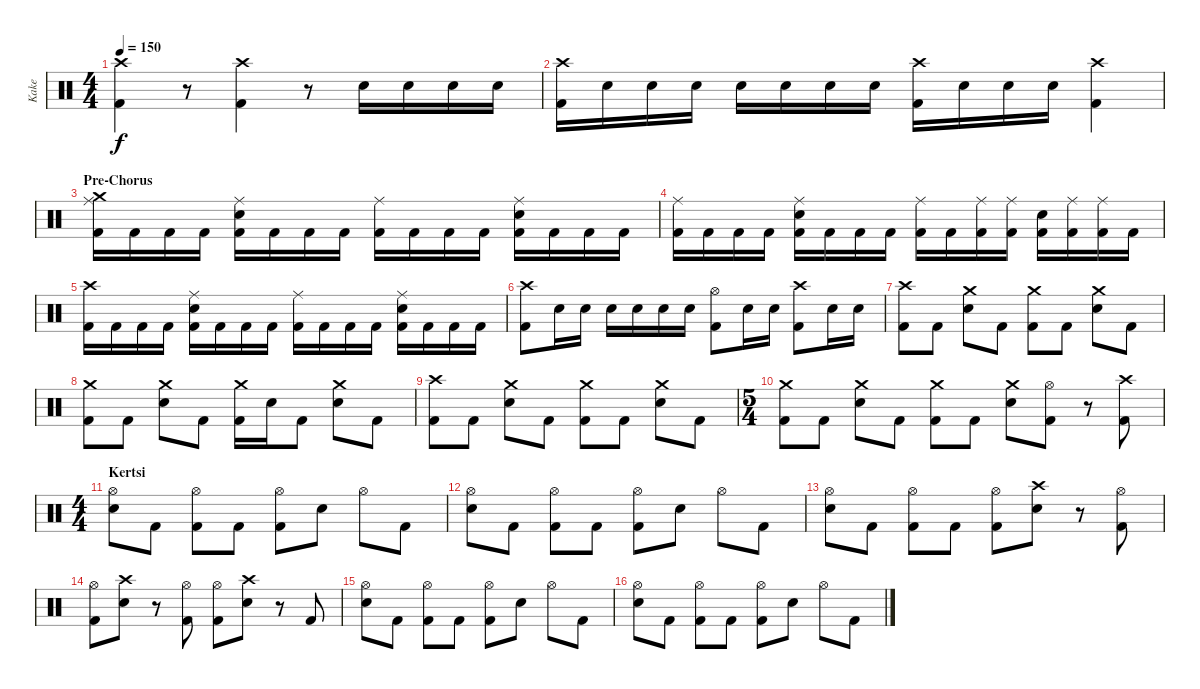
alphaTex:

\track ("Kake" "Kake") {instrument percussion}
\staff {score}
\articulation defaults
\ts (4 4)
\tempo 150
\clef neutral
\ks c
("Crash high (hit)" "Kick (hit) 2").4{dy f} r.8 ("Crash high (hit)" "Kick (hit) 2").4 r.8 "Electric Snare (hit)".16 "Electric Snare (hit)".16 "Electric Snare (hit)".16 "Electric Snare (hit)".16 |
("Crash high (hit)" "Kick (hit) 2").16 "Electric Snare (hit)".16 "Electric Snare (hit)".16 "Electric Snare (hit)".16 "Electric Snare (hit)".16 "Electric Snare (hit)".16 "Electric Snare (hit)".16 "Electric Snare (hit)".16 ("Crash high (hit)" "Kick (hit) 2").16 "Electric Snare (hit)".16 "Electric Snare (hit)".16 "Electric Snare (hit)".16 ("Crash high (hit)" "Kick (hit) 2").4 |
\section ("" "Pre-Chorus")
("Ride (middle)" "Crash medium (hit)" "Kick (hit) 2").16 "Kick (hit) 2".16 "Kick (hit) 2".16 "Kick (hit) 2".16 ("Ride (middle)" "Electric Snare (hit)" "Kick (hit) 2").16 "Kick (hit) 2".16 "Kick (hit) 2".16 "Kick (hit) 2".16 ("Ride (middle)" "Kick (hit) 2").16 "Kick (hit) 2".16 "Kick (hit) 2".16 "Kick (hit) 2".16 ("Ride (middle)" "Electric Snare (hit)" "Kick (hit) 2").16 "Kick (hit) 2".16 "Kick (hit) 2".16 "Kick (hit) 2".16 |
("Ride (middle)" "Kick (hit) 2").16 "Kick (hit) 2".16 "Kick (hit) 2".16 "Kick (hit) 2".16 ("Ride (middle)" "Electric Snare (hit)" "Kick (hit) 2").16 "Kick (hit) 2".16 "Kick (hit) 2".16 "Kick (hit) 2".16 ("Ride (middle)" "Kick (hit) 2").16 "Kick (hit) 2".16 ("Ride (middle)" "Kick (hit) 2").16 ("Ride (middle)" "Kick (hit) 2").16 ("Electric Snare (hit)" "Kick (hit) 2").16 ("Ride (middle)" "Kick (hit) 2").16 ("Ride (middle)" "Kick (hit) 2").16 "Kick (hit) 2".16 |
("Crash high (hit)" "Kick (hit) 2").16 "Kick (hit) 2".16 "Kick (hit) 2".16 "Kick (hit) 2".16 ("Ride (middle)" "Electric Snare (hit)" "Kick (hit) 2").16 "Kick (hit) 2".16 "Kick (hit) 2".16 "Kick (hit) 2".16 ("Ride (middle)" "Kick (hit) 2").16 "Kick (hit) 2".16 "Kick (hit) 2".16 "Kick (hit) 2".16 ("Ride (middle)" "Electric Snare (hit)" "Kick (hit) 2").16 "Kick (hit) 2".16 "Kick (hit) 2".16 "Kick (hit) 2".16 |
("Crash high (hit)" "Kick (hit) 2").8 "Electric Snare (hit)".16 "Electric Snare (hit)".16 "Electric Snare (hit)".16 "Electric Snare (hit)".16 "Electric Snare (hit)".16 "Electric Snare (hit)".16 ("Hi-Hat (open)" "Kick (hit) 2").8 "Electric Snare (hit)".16 "Electric Snare (hit)".16 ("Crash high (hit)" "Kick (hit) 2").8 "Electric Snare (hit)".16 "Electric Snare (hit)".16 |
("Crash high (hit)" "Kick (hit) 2").8 "Kick (hit) 2".8 ("Crash medium (hit)" "Electric Snare (hit)").8 "Kick (hit) 2".8 ("Crash medium (hit)" "Kick (hit) 2").8 "Kick (hit) 2".8 ("Crash medium (hit)" "Electric Snare (hit)").8 "Kick (hit) 2".8 |
("Crash medium (hit)" "Kick (hit) 2").8 "Kick (hit) 2".8 ("Crash medium (hit)" "Electric Snare (hit)").8 "Kick (hit) 2".8 ("Crash medium (hit)" "Kick (hit) 2").16 "Electric Snare (hit)".16 "Kick (hit) 2".8 ("Crash medium (hit)" "Electric Snare (hit)").8 "Kick (hit) 2".8 |
("Crash high (hit)" "Kick (hit) 2").8 "Kick (hit) 2".8 ("Crash medium (hit)" "Electric Snare (hit)").8 "Kick (hit) 2".8 ("Crash medium (hit)" "Kick (hit) 2").8 "Kick (hit) 2".8 ("Crash medium (hit)" "Electric Snare (hit)").8 "Kick (hit) 2".8 |
\ts (5 4)
("Crash medium (hit)" "Kick (hit) 2").8 "Kick (hit) 2".8 ("Crash medium (hit)" "Electric Snare (hit)").8 "Kick (hit) 2".8 ("Crash medium (hit)" "Kick (hit) 2").8 "Kick (hit) 2".8 ("Crash medium (hit)" "Electric Snare (hit)").8 ("Hi-Hat (open)" "Kick (hit) 2").8 r.8 ("Crash high (hit)" "Kick (hit) 2").8 |
\ts (4 4)
\section ("" "Kertsi")
("Hi-Hat (open)" "Electric Snare (hit)").8 "Kick (hit) 2".8 ("Hi-Hat (open)" "Kick (hit) 2").8 "Kick (hit) 2".8 ("Hi-Hat (open)" "Kick (hit) 2").8 "Electric Snare (hit)".8 "Hi-Hat (open)".8 "Kick (hit) 2".8 |
("Hi-Hat (open)" "Electric Snare (hit)").8 "Kick (hit) 2".8 ("Hi-Hat (open)" "Kick (hit) 2").8 "Kick (hit) 2".8 ("Hi-Hat (open)" "Kick (hit) 2").8 "Electric Snare (hit)".8 "Hi-Hat (open)".8 "Kick (hit) 2".8 |
("Hi-Hat (open)" "Electric Snare (hit)").8 "Kick (hit) 2".8 ("Hi-Hat (open)" "Kick (hit) 2").8 "Kick (hit) 2".8 ("Hi-Hat (open)" "Kick (hit) 2").8 ("Crash high (hit)" "Electric Snare (hit)").8 r.8 ("Hi-Hat (open)" "Kick (hit) 2").8 |
("Hi-Hat (open)" "Kick (hit) 2").8 ("Crash high (hit)" "Electric Snare (hit)").8 r.8 ("Hi-Hat (open)" "Kick (hit) 2").8 ("Hi-Hat (open)" "Kick (hit) 2").8 ("Crash high (hit)" "Electric Snare (hit)").8 r.8 "Kick (hit) 2".8 |
("Hi-Hat (open)" "Electric Snare (hit)").8 "Kick (hit) 2".8 ("Hi-Hat (open)" "Kick (hit) 2").8 "Kick (hit) 2".8 ("Hi-Hat (open)" "Kick (hit) 2").8 "Electric Snare (hit)".8 "Hi-Hat (open)".8 "Kick (hit) 2".8 |
("Hi-Hat (open)" "Electric Snare (hit)").8 "Kick (hit) 2".8 ("Hi-Hat (open)" "Kick (hit) 2").8 "Kick (hit) 2".8 ("Hi-Hat (open)" "Kick (hit) 2").8 "Electric Snare (hit)".8 "Hi-Hat (open)".8 "Kick (hit) 2".8
